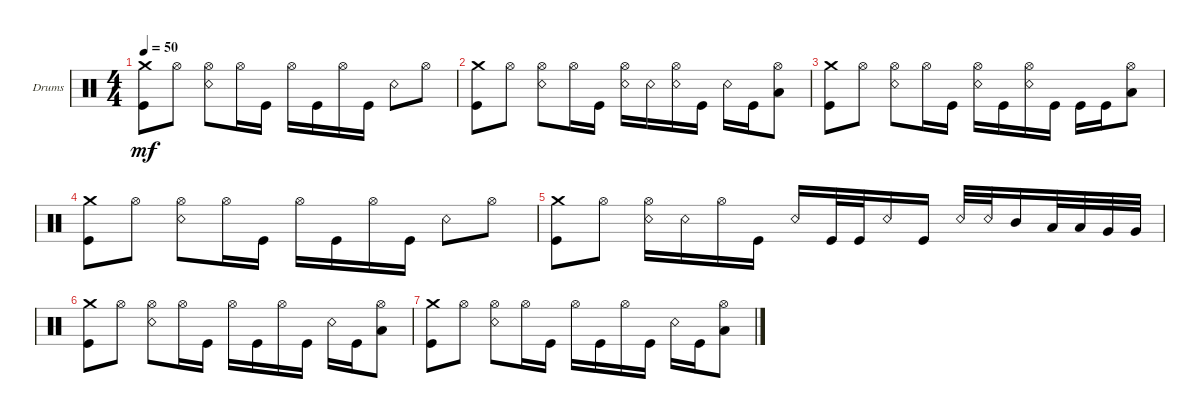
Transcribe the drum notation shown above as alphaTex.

\defaultSystemsLayout 4
\bracketExtendMode groupsimilarinstruments
\firstSystemTrackNameOrientation horizontal
\otherSystemsTrackNameOrientation horizontal
\track ("Drumkit" "Drums") {instrument percussion}
\staff {score}
\articulation defaults
\ts (4 4)
\tempo 50
\clef neutral
\ks c
("Crash medium (hit)" "Kick (hit)").8{dy mf} "Hi-Hat (open)".8 ("Snare (rim shot)" "Hi-Hat (open)").8 "Hi-Hat (open)".16 "Kick (hit)".16 "Hi-Hat (open)".16 "Kick (hit)".16 "Hi-Hat (open)".16 "Kick (hit)".16 "Snare (rim shot)".8 "Hi-Hat (open)".8 |
("Crash medium (hit)" "Kick (hit)").8 "Hi-Hat (open)".8 ("Hi-Hat (open)" "Snare (rim shot)").8 "Hi-Hat (open)".16 "Kick (hit)".16 ("Hi-Hat (open)" "Snare (rim shot)").16 "Snare (rim shot)".16 ("Hi-Hat (open)" "Snare (rim shot)").16 "Kick (hit)".16 "Snare (rim shot)".16 "Kick (hit)".16 ("Low Tom (hit)" "Hi-Hat (open)").8 |
("Crash medium (hit)" "Kick (hit)").8 "Hi-Hat (open)".8 ("Hi-Hat (open)" "Snare (rim shot)").8 "Hi-Hat (open)".16 "Kick (hit)".16 ("Hi-Hat (open)" "Snare (rim shot)").16 "Kick (hit)".16 ("Hi-Hat (open)" "Snare (rim shot)").16 "Kick (hit)".16 "Kick (hit)".16 "Kick (hit)".16 ("Low Tom (hit)" "Hi-Hat (open)").8 |
("Crash medium (hit)" "Kick (hit)").8 "Hi-Hat (open)".8 ("Snare (rim shot)" "Hi-Hat (open)").8 "Hi-Hat (open)".16 "Kick (hit)".16 "Hi-Hat (open)".16 "Kick (hit)".16 "Hi-Hat (open)".16 "Kick (hit)".16 "Snare (rim shot)".8 "Hi-Hat (open)".8 |
("Crash medium (hit)" "Kick (hit)").8 "Hi-Hat (open)".8 ("Snare (rim shot)" "Hi-Hat (open)").16 "Snare (rim shot)".16 "Hi-Hat (open)".16 "Kick (hit)".16 "Snare (rim shot)".16 "Kick (hit)".32 "Kick (hit)".32 "Snare (rim shot)".16 "Kick (hit)".16 "Snare (rim shot)".32 "Snare (rim shot)".32 "Mid Tom (hit)".16 "Low Tom (hit)".32 "Low Tom (hit)".32 "Very Low Tom (hit)".32 "Very Low Tom (hit)".32 |
("Crash medium (hit)" "Kick (hit)").8 "Hi-Hat (open)".8 ("Hi-Hat (open)" "Snare (rim shot)").8 "Hi-Hat (open)".16 "Kick (hit)".16 "Hi-Hat (open)".16 "Kick (hit)".16 "Hi-Hat (open)".16 "Kick (hit)".16 "Snare (rim shot)".16 "Kick (hit)".16 ("Low Tom (hit)" "Hi-Hat (open)").8 |
("Crash medium (hit)" "Kick (hit)").8 "Hi-Hat (open)".8 ("Hi-Hat (open)" "Snare (rim shot)").8 "Hi-Hat (open)".16 "Kick (hit)".16 "Hi-Hat (open)".16 "Kick (hit)".16 "Hi-Hat (open)".16 "Kick (hit)".16 "Snare (rim shot)".16 "Kick (hit)".16 ("Low Tom (hit)" "Hi-Hat (open)").8
